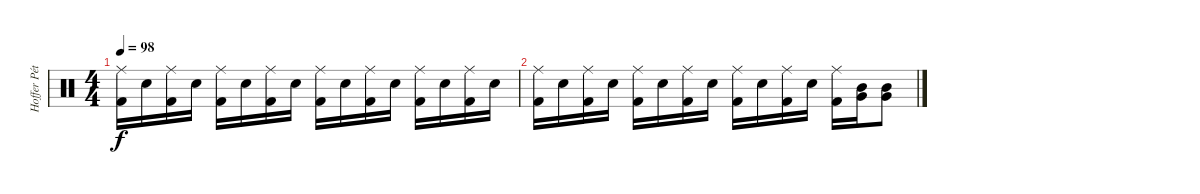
\track ("Hoffer Péter" "Hoffer Pét") {instrument percussion}
\staff {score}
\articulation defaults
\ts (4 4)
\tempo 98
\clef neutral
\ks c
("Ride (middle)" "Kick (hit) 2").16{dy f} "Electric Snare (hit)".16 ("Ride (middle)" "Kick (hit) 2").16 "Electric Snare (hit)".16 ("Ride (middle)" "Kick (hit) 2").16 "Electric Snare (hit)".16 ("Ride (middle)" "Kick (hit) 2").16 "Electric Snare (hit)".16 ("Ride (middle)" "Kick (hit) 2").16 "Electric Snare (hit)".16 ("Ride (middle)" "Kick (hit) 2").16 "Electric Snare (hit)".16 ("Ride (middle)" "Kick (hit) 2").16 "Electric Snare (hit)".16 ("Ride (middle)" "Kick (hit) 2").16 "Electric Snare (hit)".16 |
("Ride (middle)" "Kick (hit) 2").16 "Electric Snare (hit)".16 ("Ride (middle)" "Kick (hit) 2").16 "Electric Snare (hit)".16 ("Ride (middle)" "Kick (hit) 2").16 "Electric Snare (hit)".16 ("Ride (middle)" "Kick (hit) 2").16 "Electric Snare (hit)".16 ("Ride (middle)" "Kick (hit) 2").16 "Electric Snare (hit)".16 ("Ride (middle)" "Kick (hit) 2").16 "Electric Snare (hit)".16 ("Ride (middle)" "Kick (hit) 2").16 ("Mid Tom (hit)" "Very Low Tom (hit)").16 ("Mid Tom (hit)" "Very Low Tom (hit)").8
